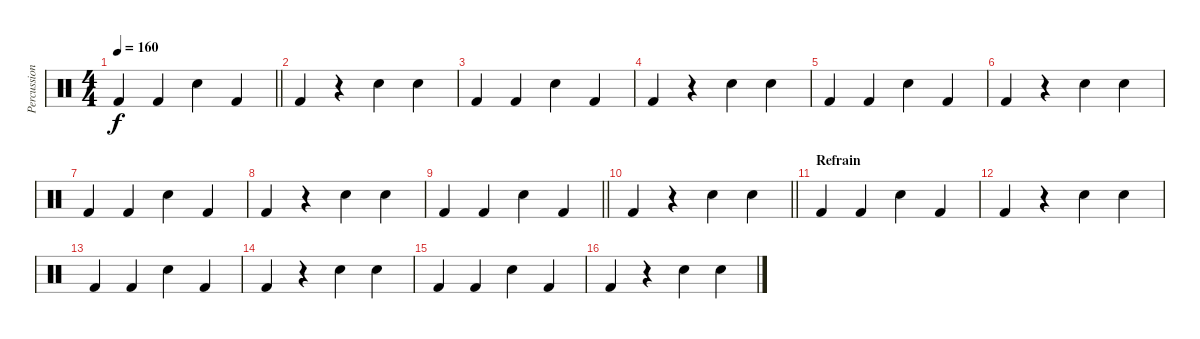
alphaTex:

\track ("Percussion" "Percussion") {instrument percussion}
\staff {score}
\articulation defaults
\ts (4 4)
\tempo 160
\clef neutral
\barLineRight lightlight
\ks c "Kick (hit) 2".4{dy f} "Kick (hit) 2".4 "Electric Snare (hit)".4 "Kick (hit) 2".4
|
"Kick (hit) 2".4 r.4 "Electric Snare (hit)".4 "Electric Snare (hit)".4 |
"Kick (hit) 2".4 "Kick (hit) 2".4 "Electric Snare (hit)".4 "Kick (hit) 2".4 |
"Kick (hit) 2".4 r.4 "Electric Snare (hit)".4 "Electric Snare (hit)".4 |
"Kick (hit) 2".4 "Kick (hit) 2".4 "Electric Snare (hit)".4 "Kick (hit) 2".4 |
"Kick (hit) 2".4 r.4 "Electric Snare (hit)".4 "Electric Snare (hit)".4 |
"Kick (hit) 2".4 "Kick (hit) 2".4 "Electric Snare (hit)".4 "Kick (hit) 2".4 |
"Kick (hit) 2".4 r.4 "Electric Snare (hit)".4 "Electric Snare (hit)".4 |
\barLineRight lightlight "Kick (hit) 2".4 "Kick (hit) 2".4 "Electric Snare (hit)".4 "Kick (hit) 2".4
|
\barLineRight lightlight "Kick (hit) 2".4
r.4 "Electric Snare (hit)".4 "Electric Snare (hit)".4 |
\section ("" "Refrain")
"Kick (hit) 2".4 "Kick (hit) 2".4 "Electric Snare (hit)".4 "Kick (hit) 2".4 |
"Kick (hit) 2".4 r.4 "Electric Snare (hit)".4 "Electric Snare (hit)".4 |
"Kick (hit) 2".4 "Kick (hit) 2".4 "Electric Snare (hit)".4 "Kick (hit) 2".4 |
"Kick (hit) 2".4 r.4 "Electric Snare (hit)".4 "Electric Snare (hit)".4 |
"Kick (hit) 2".4 "Kick (hit) 2".4 "Electric Snare (hit)".4 "Kick (hit) 2".4 |
"Kick (hit) 2".4 r.4 "Electric Snare (hit)".4 "Electric Snare (hit)".4
